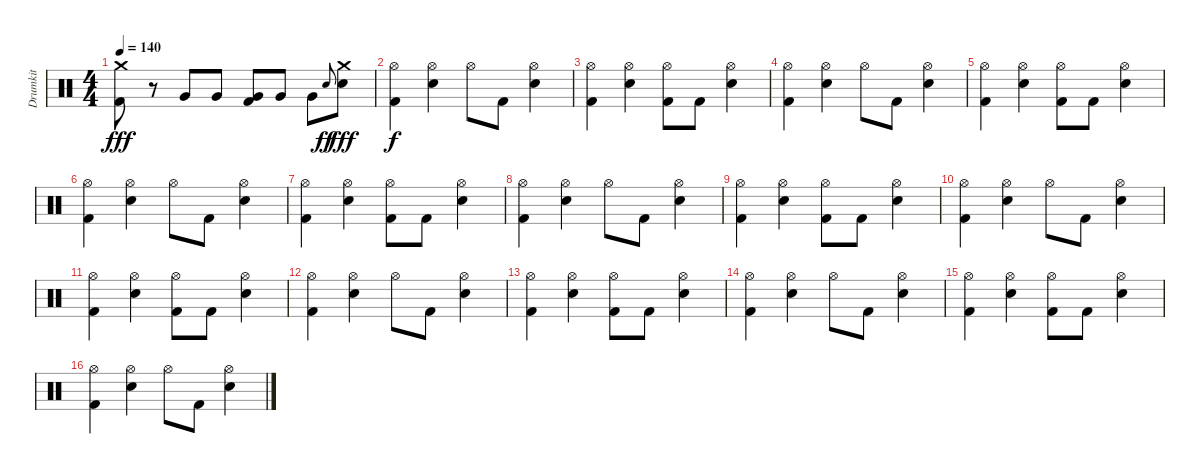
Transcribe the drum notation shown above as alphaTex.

\track ("Drumkit" "Drumkit") {instrument percussion}
\staff {score}
\articulation defaults
\ts (4 4)
\tempo 140
\clef neutral
\ks c
("Crash medium (hit)" "Kick (hit) 2").8{dy fff} r.8 "Very Low Tom (hit)".8 "Very Low Tom (hit)".8 ("Very Low Tom (hit)" "Kick (hit) 2").8 "Very Low Tom (hit)".8 "Very Low Tom (hit)".8 "Snare (hit)".8{gr onbeat dy ff} ("Crash medium (hit)" "Snare (hit) 2").8{dy fff} |
("Hi-Hat (open)" "Kick (hit) 2").4{dy f} ("Hi-Hat (open)" "Snare (hit) 2").4 "Hi-Hat (open)".8 "Kick (hit) 2".8 ("Hi-Hat (open)" "Snare (hit) 2").4 |
("Hi-Hat (open)" "Kick (hit) 2").4 ("Hi-Hat (open)" "Snare (hit) 2").4 ("Hi-Hat (open)" "Kick (hit) 2").8 "Kick (hit) 2".8 ("Hi-Hat (open)" "Snare (hit) 2").4 |
("Hi-Hat (open)" "Kick (hit) 2").4 ("Hi-Hat (open)" "Snare (hit) 2").4 "Hi-Hat (open)".8 "Kick (hit) 2".8 ("Hi-Hat (open)" "Snare (hit) 2").4 |
("Hi-Hat (open)" "Kick (hit) 2").4 ("Hi-Hat (open)" "Snare (hit) 2").4 ("Hi-Hat (open)" "Kick (hit) 2").8 "Kick (hit) 2".8 ("Hi-Hat (open)" "Snare (hit) 2").4 |
("Hi-Hat (open)" "Kick (hit) 2").4 ("Hi-Hat (open)" "Snare (hit) 2").4 "Hi-Hat (open)".8 "Kick (hit) 2".8 ("Hi-Hat (open)" "Snare (hit) 2").4 |
("Hi-Hat (open)" "Kick (hit) 2").4 ("Hi-Hat (open)" "Snare (hit) 2").4 ("Hi-Hat (open)" "Kick (hit) 2").8 "Kick (hit) 2".8 ("Hi-Hat (open)" "Snare (hit) 2").4 |
("Hi-Hat (open)" "Kick (hit) 2").4 ("Hi-Hat (open)" "Snare (hit) 2").4 "Hi-Hat (open)".8 "Kick (hit) 2".8 ("Hi-Hat (open)" "Snare (hit) 2").4 |
("Hi-Hat (open)" "Kick (hit) 2").4 ("Hi-Hat (open)" "Snare (hit) 2").4 ("Hi-Hat (open)" "Kick (hit) 2").8 "Kick (hit) 2".8 ("Hi-Hat (open)" "Snare (hit) 2").4 |
("Hi-Hat (open)" "Kick (hit) 2").4 ("Hi-Hat (open)" "Snare (hit) 2").4 "Hi-Hat (open)".8 "Kick (hit) 2".8 ("Hi-Hat (open)" "Snare (hit) 2").4 |
("Hi-Hat (open)" "Kick (hit) 2").4 ("Hi-Hat (open)" "Snare (hit) 2").4 ("Hi-Hat (open)" "Kick (hit) 2").8 "Kick (hit) 2".8 ("Hi-Hat (open)" "Snare (hit) 2").4 |
("Hi-Hat (open)" "Kick (hit) 2").4 ("Hi-Hat (open)" "Snare (hit) 2").4 "Hi-Hat (open)".8 "Kick (hit) 2".8 ("Hi-Hat (open)" "Snare (hit) 2").4 |
("Hi-Hat (open)" "Kick (hit) 2").4 ("Hi-Hat (open)" "Snare (hit) 2").4 ("Hi-Hat (open)" "Kick (hit) 2").8 "Kick (hit) 2".8 ("Hi-Hat (open)" "Snare (hit) 2").4 |
("Hi-Hat (open)" "Kick (hit) 2").4 ("Hi-Hat (open)" "Snare (hit) 2").4 "Hi-Hat (open)".8 "Kick (hit) 2".8 ("Hi-Hat (open)" "Snare (hit) 2").4 |
("Hi-Hat (open)" "Kick (hit) 2").4 ("Hi-Hat (open)" "Snare (hit) 2").4 ("Hi-Hat (open)" "Kick (hit) 2").8 "Kick (hit) 2".8 ("Hi-Hat (open)" "Snare (hit) 2").4 |
("Hi-Hat (open)" "Kick (hit) 2").4 ("Hi-Hat (open)" "Snare (hit) 2").4 "Hi-Hat (open)".8 "Kick (hit) 2".8 ("Hi-Hat (open)" "Snare (hit) 2").4
